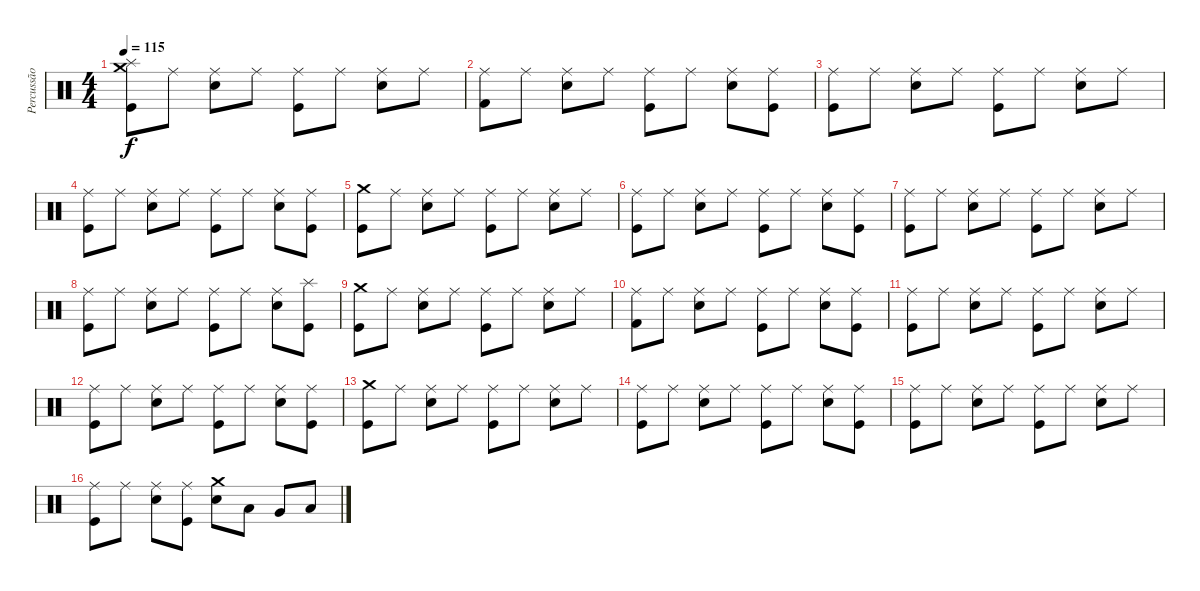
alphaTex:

\track ("Percussão" "Percussão") {instrument percussion}
\staff {score}
\articulation defaults
\ts (4 4)
\tempo 115
\clef neutral
\ks c
("Splash (hit)" "Crash medium (hit)" "Kick (hit)").8{dy f} "Ride (middle)".8 ("Ride (middle)" "Electric Snare (hit)").8 "Ride (middle)".8 ("Ride (middle)" "Kick (hit)").8 "Ride (middle)".8 ("Ride (middle)" "Electric Snare (hit)").8 "Ride (middle)".8 |
("Ride (middle)" "Kick (hit) 2").8 "Ride (middle)".8 ("Ride (middle)" "Electric Snare (hit)").8 "Ride (middle)".8 ("Ride (middle)" "Kick (hit)").8 "Ride (middle)".8 ("Ride (middle)" "Electric Snare (hit)").8 ("Ride (middle)" "Kick (hit)").8 |
("Ride (middle)" "Kick (hit)").8 "Ride (middle)".8 ("Ride (middle)" "Electric Snare (hit)").8 "Ride (middle)".8 ("Ride (middle)" "Kick (hit)").8 "Ride (middle)".8 ("Ride (middle)" "Electric Snare (hit)").8 "Ride (middle)".8 |
("Ride (middle)" "Kick (hit)").8 "Ride (middle)".8 ("Ride (middle)" "Electric Snare (hit)").8 "Ride (middle)".8 ("Ride (middle)" "Kick (hit)").8 "Ride (middle)".8 ("Ride (middle)" "Electric Snare (hit)").8 ("Ride (middle)" "Kick (hit)").8 |
("Crash medium (hit)" "Kick (hit)").8 "Ride (middle)".8 ("Ride (middle)" "Electric Snare (hit)").8 "Ride (middle)".8 ("Ride (middle)" "Kick (hit)").8 "Ride (middle)".8 ("Ride (middle)" "Electric Snare (hit)").8 "Ride (middle)".8 |
("Ride (middle)" "Kick (hit)").8 "Ride (middle)".8 ("Ride (middle)" "Electric Snare (hit)").8 "Ride (middle)".8 ("Ride (middle)" "Kick (hit)").8 "Ride (middle)".8 ("Ride (middle)" "Electric Snare (hit)").8 ("Ride (middle)" "Kick (hit)").8 |
("Ride (middle)" "Kick (hit)").8 "Ride (middle)".8 ("Ride (middle)" "Electric Snare (hit)").8 "Ride (middle)".8 ("Ride (middle)" "Kick (hit)").8 "Ride (middle)".8 ("Ride (middle)" "Electric Snare (hit)").8 "Ride (middle)".8 |
("Ride (middle)" "Kick (hit)").8 "Ride (middle)".8 ("Ride (middle)" "Electric Snare (hit)").8 "Ride (middle)".8 ("Ride (middle)" "Kick (hit)").8 "Ride (middle)".8 ("Ride (middle)" "Electric Snare (hit)").8 ("Splash (hit)" "Kick (hit)").8 |
("Crash medium (hit)" "Kick (hit)").8 "Ride (middle)".8 ("Ride (middle)" "Electric Snare (hit)").8 "Ride (middle)".8 ("Ride (middle)" "Kick (hit)").8 "Ride (middle)".8 ("Ride (middle)" "Electric Snare (hit)").8 "Ride (middle)".8 |
("Ride (middle)" "Kick (hit) 2").8 "Ride (middle)".8 ("Ride (middle)" "Electric Snare (hit)").8 "Ride (middle)".8 ("Ride (middle)" "Kick (hit)").8 "Ride (middle)".8 ("Ride (middle)" "Electric Snare (hit)").8 ("Ride (middle)" "Kick (hit)").8 |
("Ride (middle)" "Kick (hit)").8 "Ride (middle)".8 ("Ride (middle)" "Electric Snare (hit)").8 "Ride (middle)".8 ("Ride (middle)" "Kick (hit)").8 "Ride (middle)".8 ("Ride (middle)" "Electric Snare (hit)").8 "Ride (middle)".8 |
("Ride (middle)" "Kick (hit)").8 "Ride (middle)".8 ("Ride (middle)" "Electric Snare (hit)").8 "Ride (middle)".8 ("Ride (middle)" "Kick (hit)").8 "Ride (middle)".8 ("Ride (middle)" "Electric Snare (hit)").8 ("Ride (middle)" "Kick (hit)").8 |
("Crash medium (hit)" "Kick (hit)").8 "Ride (middle)".8 ("Ride (middle)" "Electric Snare (hit)").8 "Ride (middle)".8 ("Ride (middle)" "Kick (hit)").8 "Ride (middle)".8 ("Ride (middle)" "Electric Snare (hit)").8 "Ride (middle)".8 |
("Ride (middle)" "Kick (hit)").8 "Ride (middle)".8 ("Ride (middle)" "Electric Snare (hit)").8 "Ride (middle)".8 ("Ride (middle)" "Kick (hit)").8 "Ride (middle)".8 ("Ride (middle)" "Electric Snare (hit)").8 ("Ride (middle)" "Kick (hit)").8 |
("Ride (middle)" "Kick (hit)").8 "Ride (middle)".8 ("Ride (middle)" "Electric Snare (hit)").8 "Ride (middle)".8 ("Ride (middle)" "Kick (hit)").8 "Ride (middle)".8 ("Ride (middle)" "Electric Snare (hit)").8 "Ride (middle)".8 |
("Ride (middle)" "Kick (hit)").8 "Ride (middle)".8 ("Ride (middle)" "Electric Snare (hit)").8 ("Ride (middle)" "Kick (hit)").8 ("Crash medium (hit)" "Electric Snare (hit)").8 "Low Tom (hit)".8 "Very Low Tom (hit)".8 "Low Floor Tom (hit)".8
